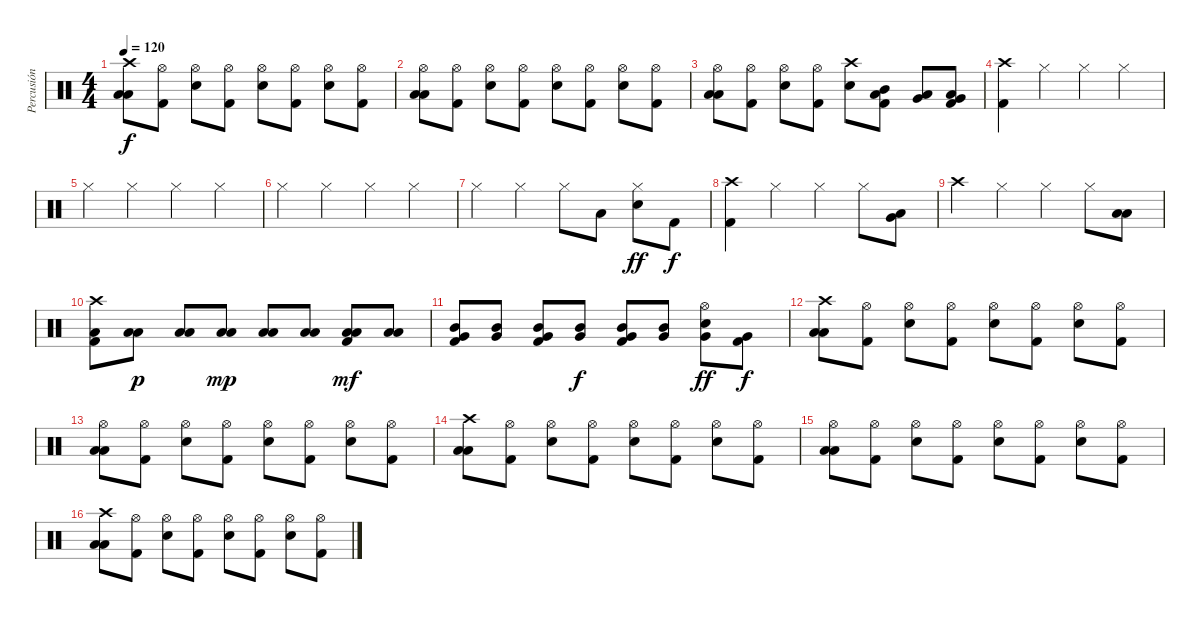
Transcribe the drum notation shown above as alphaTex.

\track ("Percusión" "Percusión") {instrument percussion}
\staff {score}
\articulation defaults
\ts (4 4)
\tempo 120
\clef neutral
\ks c
("Crash high (hit)" "Low Tom (hit)" "Low Floor Tom (hit)").8{dy f} ("Hi-Hat (open)" "Kick (hit) 2").8 ("Hi-Hat (open)" "Electric Snare (hit)").8 ("Hi-Hat (open)" "Kick (hit) 2").8 ("Hi-Hat (open)" "Electric Snare (hit)").8 ("Hi-Hat (open)" "Kick (hit) 2").8 ("Hi-Hat (open)" "Electric Snare (hit)").8 ("Hi-Hat (open)" "Kick (hit) 2").8 |
("Hi-Hat (open)" "Low Tom (hit)" "Low Floor Tom (hit)").8 ("Hi-Hat (open)" "Kick (hit) 2").8 ("Hi-Hat (open)" "Electric Snare (hit)").8 ("Hi-Hat (open)" "Kick (hit) 2").8 ("Hi-Hat (open)" "Electric Snare (hit)").8 ("Hi-Hat (open)" "Kick (hit) 2").8 ("Hi-Hat (open)" "Electric Snare (hit)").8 ("Hi-Hat (open)" "Kick (hit) 2").8 |
("Hi-Hat (open)" "Low Tom (hit)" "Low Floor Tom (hit)").8 ("Hi-Hat (open)" "Kick (hit) 2").8 ("Hi-Hat (open)" "Electric Snare (hit)").8 ("Hi-Hat (open)" "Kick (hit) 2").8 ("Crash high (hit)" "Electric Snare (hit)").8 ("Mid Tom (hit)" "Low Tom (hit)" "Kick (hit) 2").8 ("Low Tom (hit)" "Very Low Tom (hit)").8 ("Very Low Tom (hit)" "Low Floor Tom (hit)" "Kick (hit) 2").8 |
("Crash high (hit)" "Kick (hit) 2").4 "Hi-Hat (closed)".4 "Hi-Hat (closed)".4 "Hi-Hat (closed)".4 |
"Hi-Hat (closed)".4 "Hi-Hat (closed)".4 "Hi-Hat (closed)".4 "Hi-Hat (closed)".4 |
"Hi-Hat (closed)".4 "Hi-Hat (closed)".4 "Hi-Hat (closed)".4 "Hi-Hat (closed)".4 |
"Hi-Hat (closed)".4 "Hi-Hat (closed)".4 "Hi-Hat (closed)".8 "Low Floor Tom (hit)".8 ("Hi-Hat (closed)" "Electric Snare (hit)").8{dy ff} "Kick (hit) 2".8{dy f} |
("Crash high (hit)" "Kick (hit) 2").4 "Hi-Hat (closed)".4 "Hi-Hat (closed)".4 "Hi-Hat (closed)".8 ("Very Low Tom (hit)" "Low Floor Tom (hit)").8 |
"Crash high (hit)".4 "Hi-Hat (closed)".4 "Hi-Hat (closed)".4 "Hi-Hat (closed)".8 ("Low Tom (hit)" "Low Floor Tom (hit)").8 |
("Crash high (hit)" "Low Floor Tom (hit)" "Kick (hit) 2").8 ("Low Tom (hit)" "Low Floor Tom (hit)").8{dy p} ("Low Tom (hit)" "Low Floor Tom (hit)").8 ("Low Tom (hit)" "Low Floor Tom (hit)").8{dy mp} ("Low Tom (hit)" "Low Floor Tom (hit)").8 ("Low Tom (hit)" "Low Floor Tom (hit)").8 ("Low Tom (hit)" "Low Floor Tom (hit)" "Kick (hit) 2").8{dy mf} ("Low Tom (hit)" "Low Floor Tom (hit)").8 |
("Mid Tom (hit)" "Very Low Tom (hit)" "Kick (hit) 2").8 ("Mid Tom (hit)" "Very Low Tom (hit)").8 ("Mid Tom (hit)" "Very Low Tom (hit)" "Kick (hit) 2").8 ("Mid Tom (hit)" "Very Low Tom (hit)").8{dy f} ("Mid Tom (hit)" "Very Low Tom (hit)" "Kick (hit) 2").8 ("Mid Tom (hit)" "Very Low Tom (hit)").8 ("Hi-Hat (open)" "Electric Snare (hit)" "Very Low Tom (hit)").8{dy ff} ("Very Low Tom (hit)" "Kick (hit) 2").8{dy f} |
("Crash high (hit)" "Low Tom (hit)" "Low Floor Tom (hit)").8 ("Hi-Hat (open)" "Kick (hit) 2").8 ("Hi-Hat (open)" "Electric Snare (hit)").8 ("Hi-Hat (open)" "Kick (hit) 2").8 ("Hi-Hat (open)" "Electric Snare (hit)").8 ("Hi-Hat (open)" "Kick (hit) 2").8 ("Hi-Hat (open)" "Electric Snare (hit)").8 ("Hi-Hat (open)" "Kick (hit) 2").8 |
("Hi-Hat (open)" "Low Tom (hit)" "Low Floor Tom (hit)").8 ("Hi-Hat (open)" "Kick (hit) 2").8 ("Hi-Hat (open)" "Electric Snare (hit)").8 ("Hi-Hat (open)" "Kick (hit) 2").8 ("Hi-Hat (open)" "Electric Snare (hit)").8 ("Hi-Hat (open)" "Kick (hit) 2").8 ("Hi-Hat (open)" "Electric Snare (hit)").8 ("Hi-Hat (open)" "Kick (hit) 2").8 |
("Crash high (hit)" "Low Tom (hit)" "Low Floor Tom (hit)").8 ("Hi-Hat (open)" "Kick (hit) 2").8 ("Hi-Hat (open)" "Electric Snare (hit)").8 ("Hi-Hat (open)" "Kick (hit) 2").8 ("Hi-Hat (open)" "Electric Snare (hit)").8 ("Hi-Hat (open)" "Kick (hit) 2").8 ("Hi-Hat (open)" "Electric Snare (hit)").8 ("Hi-Hat (open)" "Kick (hit) 2").8 |
("Hi-Hat (open)" "Low Tom (hit)" "Low Floor Tom (hit)").8 ("Hi-Hat (open)" "Kick (hit) 2").8 ("Hi-Hat (open)" "Electric Snare (hit)").8 ("Hi-Hat (open)" "Kick (hit) 2").8 ("Hi-Hat (open)" "Electric Snare (hit)").8 ("Hi-Hat (open)" "Kick (hit) 2").8 ("Hi-Hat (open)" "Electric Snare (hit)").8 ("Hi-Hat (open)" "Kick (hit) 2").8 |
("Crash high (hit)" "Low Tom (hit)" "Low Floor Tom (hit)").8 ("Hi-Hat (open)" "Kick (hit) 2").8 ("Hi-Hat (open)" "Electric Snare (hit)").8 ("Hi-Hat (open)" "Kick (hit) 2").8 ("Hi-Hat (open)" "Electric Snare (hit)").8 ("Hi-Hat (open)" "Kick (hit) 2").8 ("Hi-Hat (open)" "Electric Snare (hit)").8 ("Hi-Hat (open)" "Kick (hit) 2").8
